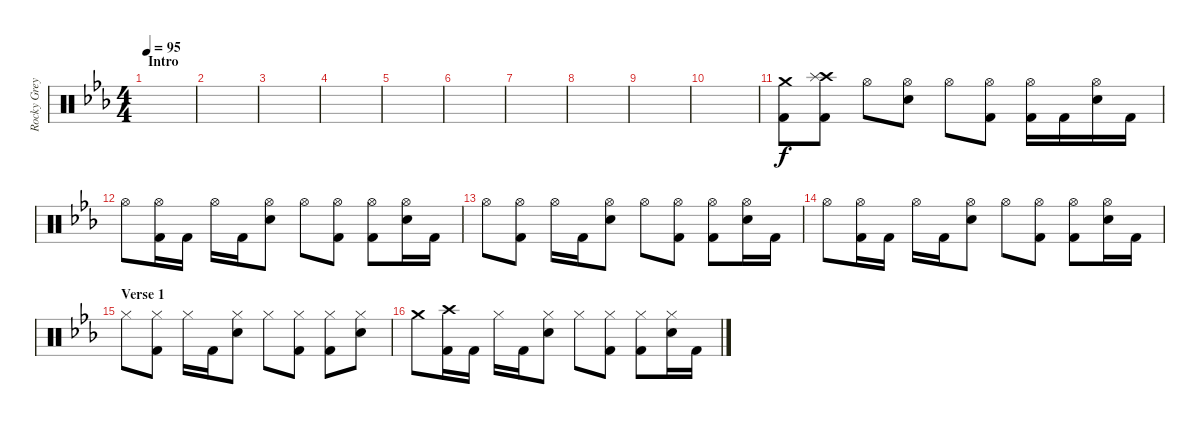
\track ("Rocky Grey" "Rocky Grey") {instrument percussion}
\staff {score}
\articulation defaults
\ts (4 4)
\section ("" "Intro")
\tempo 95
\clef neutral
\ks eb
|
|
|
|
|
|
|
|
|
|
("Crash medium (hit)" "Kick (hit) 2").8 ("Crash high (hit)" "Splash (hit)" "Kick (hit) 2").8 "Hi-Hat (open)".8 ("Hi-Hat (open)" "Snare (hit) 2").8 "Hi-Hat (open)".8 ("Hi-Hat (open)" "Kick (hit) 2").8 ("Hi-Hat (open)" "Kick (hit) 2").16 "Kick (hit) 2".16 ("Hi-Hat (open)" "Snare (hit) 2").16 "Kick (hit) 2".16 |
"Hi-Hat (open)".8 ("Hi-Hat (open)" "Kick (hit) 2").16 "Kick (hit) 2".16 "Hi-Hat (open)".16 "Kick (hit) 2".16 ("Hi-Hat (open)" "Snare (hit) 2").8 "Hi-Hat (open)".8 ("Hi-Hat (open)" "Kick (hit) 2").8 ("Hi-Hat (open)" "Kick (hit) 2").8 ("Hi-Hat (open)" "Snare (hit) 2").16 "Kick (hit) 2".16 |
"Hi-Hat (open)".8 ("Hi-Hat (open)" "Kick (hit) 2").8 "Hi-Hat (open)".16 "Kick (hit) 2".16 ("Hi-Hat (open)" "Snare (hit) 2").8 "Hi-Hat (open)".8 ("Hi-Hat (open)" "Kick (hit) 2").8 ("Hi-Hat (open)" "Kick (hit) 2").8 ("Hi-Hat (open)" "Snare (hit) 2").16 "Kick (hit) 2".16 |
"Hi-Hat (open)".8 ("Hi-Hat (open)" "Kick (hit) 2").16 "Kick (hit) 2".16 "Hi-Hat (open)".16 "Kick (hit) 2".16 ("Hi-Hat (open)" "Snare (hit) 2").8 "Hi-Hat (open)".8 ("Hi-Hat (open)" "Kick (hit) 2").8 ("Hi-Hat (open)" "Kick (hit) 2").8 ("Hi-Hat (open)" "Snare (hit) 2").16 "Kick (hit) 2".16 |
\section ("" "Verse 1")
"Hi-Hat (closed)".8 ("Hi-Hat (closed)" "Kick (hit) 2").8 "Hi-Hat (closed)".16 "Kick (hit) 2".16 ("Hi-Hat (closed)" "Snare (hit) 2").8 "Hi-Hat (closed)".8 ("Hi-Hat (closed)" "Kick (hit) 2").8 ("Hi-Hat (closed)" "Kick (hit) 2").8 ("Hi-Hat (closed)" "Snare (hit) 2").8 |
"Crash medium (hit)".8 ("Crash high (hit)" "Kick (hit) 2").16 "Kick (hit) 2".16 "Hi-Hat (closed)".16 "Kick (hit) 2".16 ("Hi-Hat (closed)" "Snare (hit) 2").8 "Hi-Hat (closed)".8 ("Hi-Hat (closed)" "Kick (hit) 2").8 ("Hi-Hat (closed)" "Kick (hit) 2").8 ("Hi-Hat (closed)" "Snare (hit) 2").16 "Kick (hit) 2".16
